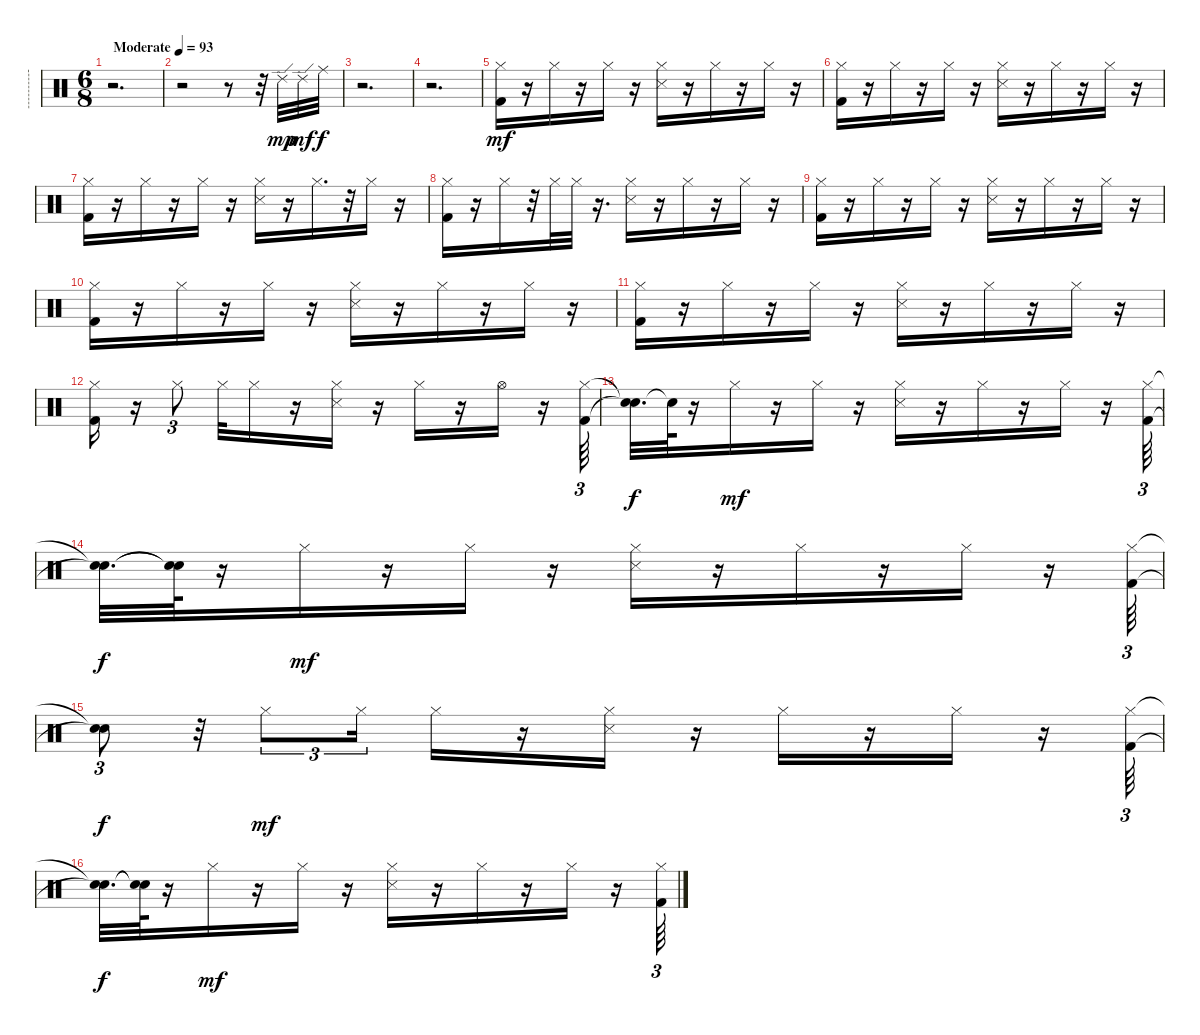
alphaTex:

\track ("-----------------------------------" "----------") {instrument percussion}
\staff {score}
\articulation defaults
\ts (6 8)
\tempo (93 "Moderate")
\clef neutral
\ks c
r.2{d dy mp} |
r.2 r.8 r.32 "Ride (edge) 2".32 "Ride (edge) 2".32{dy mf} "Ride (middle)".32{dy f} |
r.2{d} |
r.2{d} |
("Hi-Hat (closed)" "Kick (hit) 2").16{dy mf} r.16 "Hi-Hat (closed)".16 r.16 "Hi-Hat (closed)".16 r.16 ("Hi-Hat (closed)" "Snare (side stick) 3").16 r.16 "Hi-Hat (closed)".16 r.16 "Hi-Hat (closed)".16 r.16 |
("Hi-Hat (closed)" "Kick (hit) 2").16 r.16 "Hi-Hat (closed)".16 r.16 "Hi-Hat (closed)".16 r.16 ("Hi-Hat (closed)" "Snare (side stick) 3").16 r.16 "Hi-Hat (closed)".16 r.16 "Hi-Hat (closed)".16 r.16 |
("Hi-Hat (closed)" "Kick (hit) 2").16 r.16 "Hi-Hat (closed)".16 r.16 "Hi-Hat (closed)".16 r.16 ("Hi-Hat (closed)" "Snare (side stick) 3").16 r.16 "Hi-Hat (closed)".16{d} r.32 "Hi-Hat (closed)".16 r.16 |
("Hi-Hat (closed)" "Kick (hit) 2").16 r.16 "Hi-Hat (closed)".16 r.32 "Hi-Hat (closed)".32 "Hi-Hat (closed)".32 r.16{d} ("Hi-Hat (closed)" "Snare (side stick) 3").16 r.16 "Hi-Hat (closed)".16 r.16 "Hi-Hat (closed)".16 r.16 |
("Hi-Hat (closed)" "Kick (hit) 2").16 r.16 "Hi-Hat (closed)".16 r.16 "Hi-Hat (closed)".16 r.16 ("Hi-Hat (closed)" "Snare (side stick) 3").16 r.16 "Hi-Hat (closed)".16 r.16 "Hi-Hat (closed)".16 r.16 |
("Hi-Hat (closed)" "Kick (hit) 2").16 r.16 "Hi-Hat (closed)".16 r.16 "Hi-Hat (closed)".16 r.16 ("Hi-Hat (closed)" "Snare (side stick) 3").16 r.16 "Hi-Hat (closed)".16 r.16 "Hi-Hat (closed)".16 r.16 |
("Hi-Hat (closed)" "Kick (hit) 2").16 r.16 "Hi-Hat (closed)".16 r.16 "Hi-Hat (closed)".16 r.16 ("Hi-Hat (closed)" "Snare (side stick) 3").16 r.16 "Hi-Hat (closed)".16 r.16 "Hi-Hat (closed)".16 r.16 |
("Hi-Hat (closed)" "Kick (hit) 2").16 r.16 "Hi-Hat (closed)".8{tu (3 2)} "Hi-Hat (closed)".32 "Hi-Hat (closed)".16 r.16 ("Hi-Hat (closed)" "Snare (side stick) 3").16 r.16 "Hi-Hat (closed)".16 r.16 "Hi-Hat (open)".16 r.16 ("Hi-Hat (closed)" "Kick (hit) 2").64{tu (3 2)} |
("Snare (hit)"{t} "Snare (hit)"{t}).32{d dy f} "Snare (hit)"{t}.64 r.16 "Hi-Hat (closed)".16{dy mf} r.16 "Hi-Hat (closed)".16 r.16 ("Hi-Hat (closed)" "Snare (side stick) 3").16 r.16 "Hi-Hat (closed)".16 r.16 "Hi-Hat (closed)".16 r.16 ("Hi-Hat (closed)" "Kick (hit) 2").64{tu (3 2)} |
("Snare (hit)"{t} "Snare (hit)"{t}).32{d dy f} ("Snare (hit)"{t} "Snare (hit)"{t}).64 r.16 "Hi-Hat (closed)".16{dy mf} r.16 "Hi-Hat (closed)".16 r.16 ("Hi-Hat (closed)" "Snare (side stick) 3").16 r.16 "Hi-Hat (closed)".16 r.16 "Hi-Hat (closed)".16 r.16 ("Hi-Hat (closed)" "Kick (hit) 2").64{tu (3 2)} |
("Snare (hit)"{t} "Snare (hit)"{t}).8{tu (3 2) dy f} r.32 "Hi-Hat (closed)".8{tu (3 2) dy mf} "Hi-Hat (closed)".16{tu (3 2)} "Hi-Hat (closed)".16 r.16 ("Hi-Hat (closed)" "Snare (side stick) 3").16 r.16 "Hi-Hat (closed)".16 r.16 "Hi-Hat (closed)".16 r.16 ("Hi-Hat (closed)" "Kick (hit) 2").64{tu (3 2)} |
("Snare (hit)"{t} "Snare (hit)"{t}).32{d dy f} ("Snare (hit)"{t} "Snare (hit)"{t}).64 r.16 "Hi-Hat (closed)".16{dy mf} r.16 "Hi-Hat (closed)".16 r.16 ("Hi-Hat (closed)" "Snare (side stick) 3").16 r.16 "Hi-Hat (closed)".16 r.16 "Hi-Hat (closed)".16 r.16 ("Hi-Hat (closed)" "Kick (hit) 2").64{tu (3 2)}
